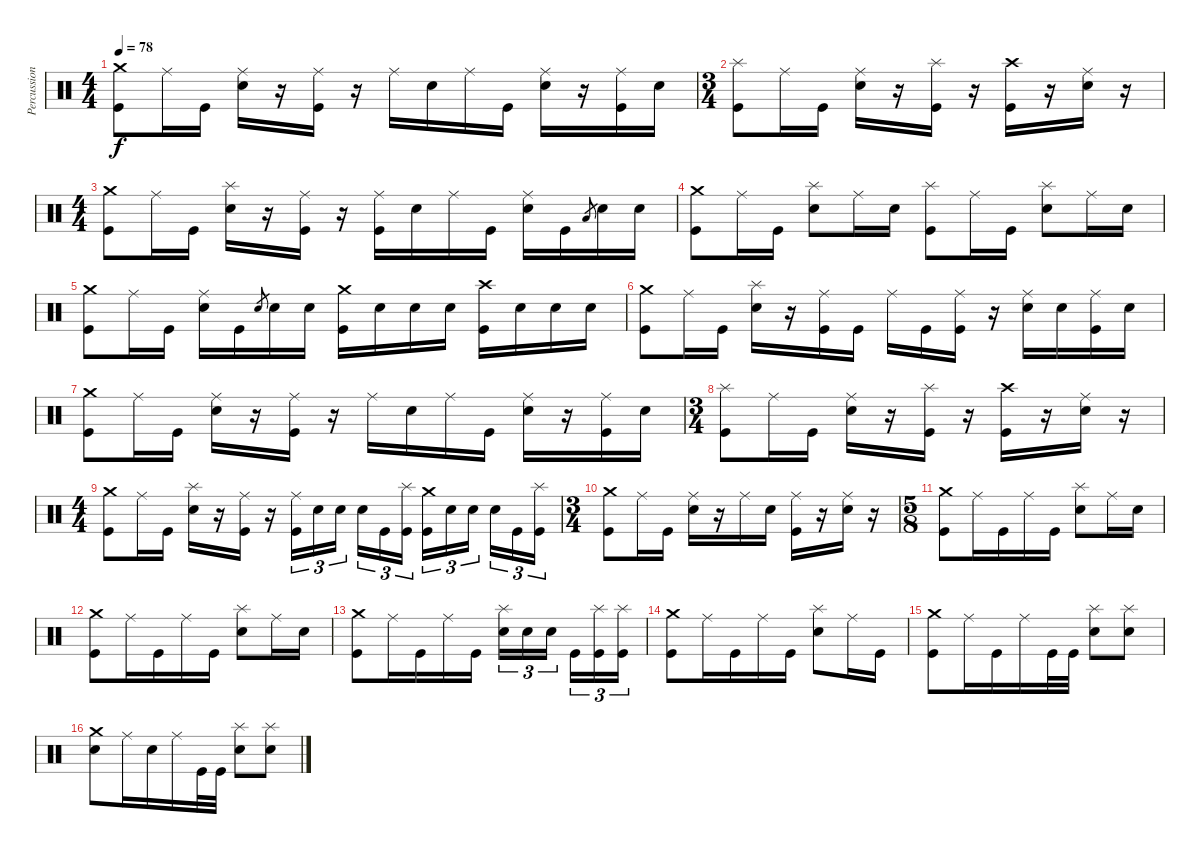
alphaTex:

\track ("Percussions" "Percussion") {instrument percussion}
\staff {score}
\articulation defaults
\ts (4 4)
\tempo 78
\clef neutral
\ks c
("Crash medium (hit)" "Kick (hit)").8{dy f} "Ride (middle)".16 "Kick (hit)".16 ("Ride (middle)" "Snare (hit) 2").16 r.16 ("Ride (middle)" "Kick (hit)").16 r.16 "Ride (middle)".16 "Snare (hit) 2".16 "Ride (middle)".16 "Kick (hit)".16 ("Ride (middle)" "Snare (hit) 2").16 r.16 ("Ride (middle)" "Kick (hit)").16 "Snare (hit) 2".16 |
\ts (3 4)
("Splash (hit)" "Kick (hit)").8 "Ride (middle)".16 "Kick (hit)".16 ("Ride (middle)" "Snare (hit) 2").16 r.16 ("Splash (hit)" "Kick (hit)").16 r.16 ("Crash high (hit)" "Kick (hit)").16 r.16 ("Ride (middle)" "Snare (hit) 2").16 r.16 |
\ts (4 4)
("Crash medium (hit)" "Kick (hit)").8 "Ride (middle)".16 "Kick (hit)".16 ("Splash (hit)" "Snare (hit) 2").16 r.16 ("Ride (middle)" "Kick (hit)").16 r.16 ("Ride (middle)" "Kick (hit)").16 "Snare (hit) 2".16 "Ride (middle)".16 "Kick (hit)".16 ("Ride (middle)" "Snare (hit) 2").16 "Kick (hit)".16 "Low Tom (hit)".8{gr} "Snare (hit) 2".16 "Snare (hit) 2".16 |
("Crash medium (hit)" "Kick (hit)").8 "Ride (middle)".16 "Kick (hit)".16 ("Splash (hit)" "Snare (hit) 2").8 "Ride (middle)".16 "Snare (hit) 2".16 ("Splash (hit)" "Kick (hit)").8 "Ride (middle)".16 "Kick (hit)".16 ("Splash (hit)" "Snare (hit) 2").8 "Ride (middle)".16 "Snare (hit) 2".16 |
("Crash medium (hit)" "Kick (hit)").8 "Ride (middle)".16 "Kick (hit)".16 ("Ride (middle)" "Snare (hit) 2").16 "Kick (hit)".16 "Snare (hit) 2".8{gr} "Snare (hit) 2".16 "Snare (hit) 2".16 ("Crash medium (hit)" "Kick (hit)").16 "Snare (hit) 2".16 "Snare (hit) 2".16 "Snare (hit) 2".16 ("Crash high (hit)" "Kick (hit)").16 "Snare (hit) 2".16 "Snare (hit) 2".16 "Snare (hit) 2".16 |
("Crash medium (hit)" "Kick (hit)").8 "Ride (middle)".16 "Kick (hit)".16 ("Splash (hit)" "Snare (hit) 2").16 r.16 ("Ride (middle)" "Kick (hit)").16 "Kick (hit)".16 "Ride (middle)".16 "Kick (hit)".16 ("Ride (middle)" "Kick (hit)").16 r.16 ("Ride (middle)" "Snare (hit) 2").16 "Snare (hit) 2".16 ("Ride (middle)" "Kick (hit)").16 "Snare (hit) 2".16 |
("Crash medium (hit)" "Kick (hit)").8 "Ride (middle)".16 "Kick (hit)".16 ("Ride (middle)" "Snare (hit) 2").16 r.16 ("Ride (middle)" "Kick (hit)").16 r.16 "Ride (middle)".16 "Snare (hit) 2".16 "Ride (middle)".16 "Kick (hit)".16 ("Ride (middle)" "Snare (hit) 2").16 r.16 ("Ride (middle)" "Kick (hit)").16 "Snare (hit) 2".16 |
\ts (3 4)
("Splash (hit)" "Kick (hit)").8 "Ride (middle)".16 "Kick (hit)".16 ("Ride (middle)" "Snare (hit) 2").16 r.16 ("Splash (hit)" "Kick (hit)").16 r.16 ("Crash high (hit)" "Kick (hit)").16 r.16 ("Ride (middle)" "Snare (hit) 2").16 r.16 |
\ts (4 4)
("Crash medium (hit)" "Kick (hit)").8 "Ride (middle)".16 "Kick (hit)".16 ("Splash (hit)" "Snare (hit) 2").16 r.16 ("Ride (middle)" "Kick (hit)").16 r.16 ("Ride (middle)" "Kick (hit)").16{tu (3 2)} "Snare (hit) 2".16{tu (3 2)} "Snare (hit) 2".16{tu (3 2)} "Snare (hit) 2".16{tu (3 2)} "Kick (hit)".16{tu (3 2)} ("Splash (hit)" "Kick (hit)").16{tu (3 2)} ("Crash medium (hit)" "Kick (hit)").16{tu (3 2)} "Snare (hit) 2".16{tu (3 2)} "Snare (hit) 2".16{tu (3 2)} "Snare (hit) 2".16{tu (3 2)} "Kick (hit)".16{tu (3 2)} ("Splash (hit)" "Kick (hit)").16{tu (3 2)} |
\ts (3 4)
("Crash medium (hit)" "Kick (hit)").8 "Ride (middle)".16 "Kick (hit)".16 ("Ride (middle)" "Snare (hit) 2").16 r.16 "Ride (middle)".16 "Snare (hit) 2".16 ("Ride (middle)" "Kick (hit)").16 r.16 ("Ride (middle)" "Snare (hit) 2").16 r.16 |
\ts (5 8)
("Crash medium (hit)" "Kick (hit)").8 "Ride (middle)".16 "Kick (hit)".16 "Ride (middle)".16 "Kick (hit)".16 ("Splash (hit)" "Snare (hit) 2").8 "Ride (middle)".16 "Snare (hit) 2".16 |
("Crash medium (hit)" "Kick (hit)").8 "Ride (middle)".16 "Kick (hit)".16 "Ride (middle)".16 "Kick (hit)".16 ("Splash (hit)" "Snare (hit) 2").8 "Ride (middle)".16 "Snare (hit) 2".16 |
("Crash medium (hit)" "Kick (hit)").8 "Ride (middle)".16 "Kick (hit)".16 "Ride (middle)".16 "Kick (hit)".16 ("Splash (hit)" "Snare (hit) 2").16{tu (3 2)} "Snare (hit) 2".16{tu (3 2)} "Snare (hit) 2".16{tu (3 2)} "Kick (hit)".16{tu (3 2)} ("Splash (hit)" "Kick (hit)").16{tu (3 2)} ("Splash (hit)" "Kick (hit)").16{tu (3 2)} |
("Crash medium (hit)" "Kick (hit)").8 "Ride (middle)".16 "Kick (hit)".16 "Ride (middle)".16 "Kick (hit)".16 ("Splash (hit)" "Snare (hit) 2").8 "Ride (middle)".16 "Kick (hit)".16 |
("Crash medium (hit)" "Kick (hit)").8 "Ride (middle)".16 "Kick (hit)".16 "Ride (middle)".16 "Kick (hit)".32 "Kick (hit)".32 ("Splash (hit)" "Snare (hit) 2").8 ("Splash (hit)" "Snare (hit) 2").8 |
("Crash medium (hit)" "Snare (hit) 2").8 "Ride (middle)".16 "Snare (hit) 2".16 "Ride (middle)".16 "Kick (hit)".32 "Kick (hit)".32 ("Splash (hit)" "Snare (hit) 2").8 ("Splash (hit)" "Snare (hit) 2").8
